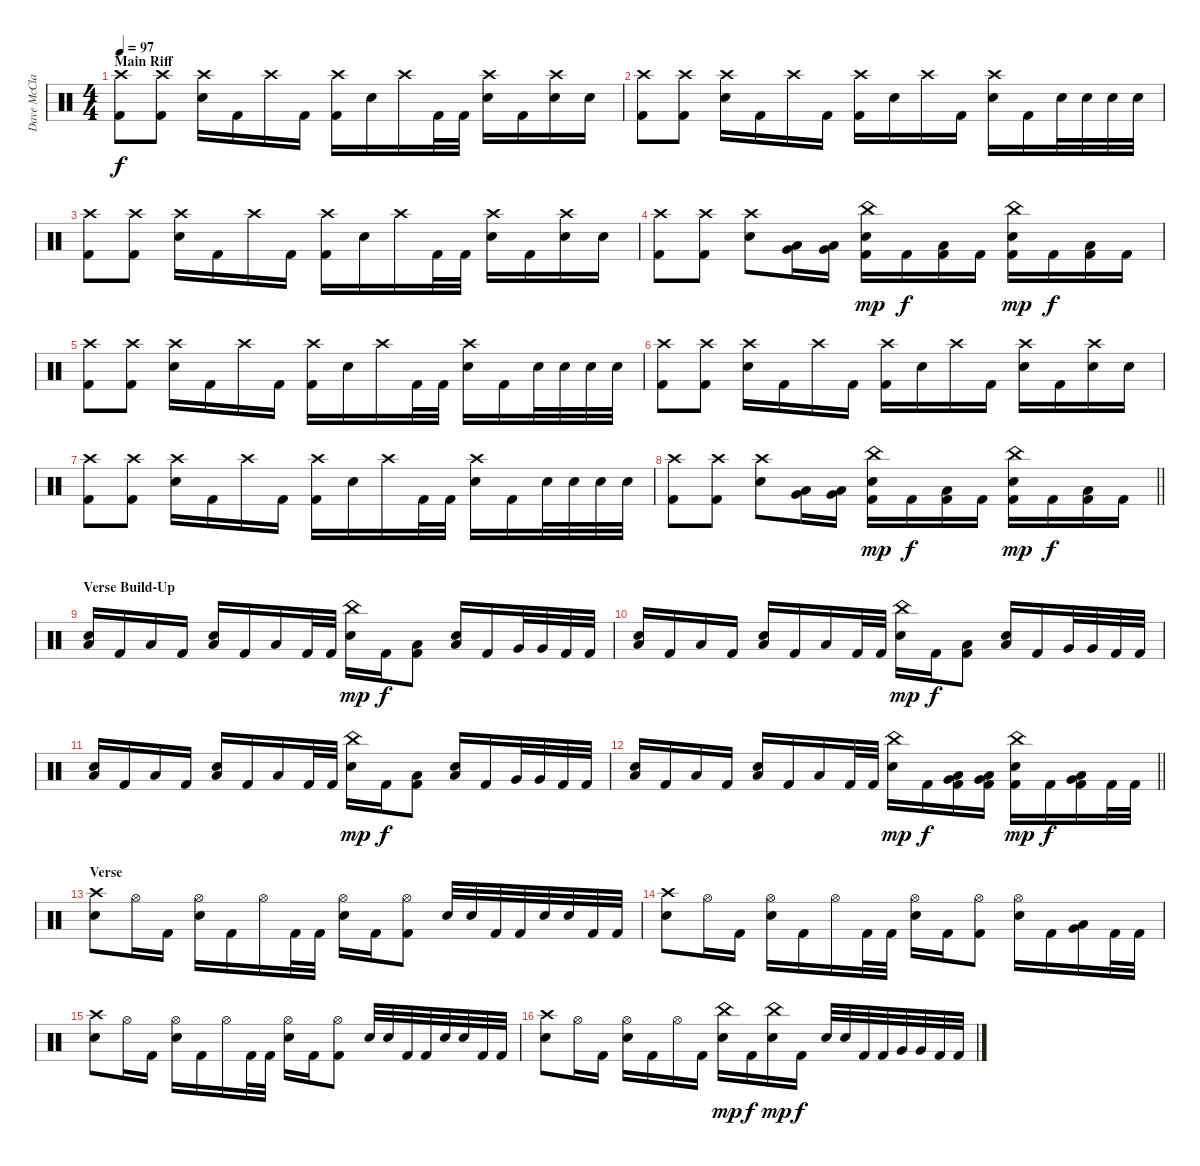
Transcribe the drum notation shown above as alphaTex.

\track ("Dave McClain" "Dave McCla") {instrument percussion}
\staff {score}
\articulation defaults
\ts (4 4)
\section ("" "Main Riff")
\tempo 97
\clef neutral
\ks c
("Crash high (hit)" "Kick (hit) 2").8{dy f} ("Crash high (hit)" "Kick (hit) 2").8 ("Crash high (hit)" "Snare (hit) 2").16 "Kick (hit) 2".16 "Crash high (hit)".16 "Kick (hit) 2".16 ("Crash high (hit)" "Kick (hit) 2").16 "Snare (hit) 2".16 "Crash high (hit)".16 "Kick (hit) 2".32 "Kick (hit) 2".32 ("Crash high (hit)" "Snare (hit) 2").16 "Kick (hit) 2".16 ("Crash high (hit)" "Snare (hit) 2").16 "Snare (hit) 2".16 |
("Crash high (hit)" "Kick (hit) 2").8 ("Crash high (hit)" "Kick (hit) 2").8 ("Crash high (hit)" "Snare (hit) 2").16 "Kick (hit) 2".16 "Crash high (hit)".16 "Kick (hit) 2".16 ("Crash high (hit)" "Kick (hit) 2").16 "Snare (hit) 2".16 "Crash high (hit)".16 "Kick (hit) 2".16 ("Crash high (hit)" "Snare (hit) 2").16 "Kick (hit) 2".16 "Snare (hit) 2".32 "Snare (hit) 2".32 "Snare (hit) 2".32 "Snare (hit) 2".32 |
("Crash high (hit)" "Kick (hit) 2").8 ("Crash high (hit)" "Kick (hit) 2").8 ("Crash high (hit)" "Snare (hit) 2").16 "Kick (hit) 2".16 "Crash high (hit)".16 "Kick (hit) 2".16 ("Crash high (hit)" "Kick (hit) 2").16 "Snare (hit) 2".16 "Crash high (hit)".16 "Kick (hit) 2".32 "Kick (hit) 2".32 ("Crash high (hit)" "Snare (hit) 2").16 "Kick (hit) 2".16 ("Crash high (hit)" "Snare (hit) 2").16 "Snare (hit) 2".16 |
("Crash high (hit)" "Kick (hit) 2").8 ("Crash high (hit)" "Kick (hit) 2").8 ("Crash high (hit)" "Snare (hit) 2").8 ("Very Low Tom (hit)" "Low Floor Tom (hit)").16 ("Very Low Tom (hit)" "Low Floor Tom (hit)").16 ("China (hit)" "Snare (hit) 2" "Kick (hit) 2").16{dy mp} "Kick (hit) 2".16{dy f} ("Low Floor Tom (hit)" "Kick (hit) 2").16 "Kick (hit) 2".16 ("China (hit)" "Snare (hit) 2" "Kick (hit) 2").16{dy mp} "Kick (hit) 2".16{dy f} ("Low Floor Tom (hit)" "Kick (hit) 2").16 "Kick (hit) 2".16 |
("Crash high (hit)" "Kick (hit) 2").8 ("Crash high (hit)" "Kick (hit) 2").8 ("Crash high (hit)" "Snare (hit) 2").16 "Kick (hit) 2".16 "Crash high (hit)".16 "Kick (hit) 2".16 ("Crash high (hit)" "Kick (hit) 2").16 "Snare (hit) 2".16 "Crash high (hit)".16 "Kick (hit) 2".32 "Kick (hit) 2".32 ("Crash high (hit)" "Snare (hit) 2").16 "Kick (hit) 2".16 "Snare (hit) 2".32 "Snare (hit) 2".32 "Snare (hit) 2".32 "Snare (hit) 2".32 |
("Crash high (hit)" "Kick (hit) 2").8 ("Crash high (hit)" "Kick (hit) 2").8 ("Crash high (hit)" "Snare (hit) 2").16 "Kick (hit) 2".16 "Crash high (hit)".16 "Kick (hit) 2".16 ("Crash high (hit)" "Kick (hit) 2").16 "Snare (hit) 2".16 "Crash high (hit)".16 "Kick (hit) 2".16 ("Crash high (hit)" "Snare (hit) 2").16 "Kick (hit) 2".16 ("Crash high (hit)" "Snare (hit) 2").16 "Snare (hit) 2".16 |
("Crash high (hit)" "Kick (hit) 2").8 ("Crash high (hit)" "Kick (hit) 2").8 ("Crash high (hit)" "Snare (hit) 2").16 "Kick (hit) 2".16 "Crash high (hit)".16 "Kick (hit) 2".16 ("Crash high (hit)" "Kick (hit) 2").16 "Snare (hit) 2".16 "Crash high (hit)".16 "Kick (hit) 2".32 "Kick (hit) 2".32 ("Crash high (hit)" "Snare (hit) 2").16 "Kick (hit) 2".16 "Snare (hit) 2".32 "Snare (hit) 2".32 "Snare (hit) 2".32 "Snare (hit) 2".32 |
\barLineRight lightlight
("Crash high (hit)" "Kick (hit) 2").8 ("Crash high (hit)" "Kick (hit) 2").8 ("Crash high (hit)" "Snare (hit) 2").8 ("Very Low Tom (hit)" "Low Floor Tom (hit)").16 ("Very Low Tom (hit)" "Low Floor Tom (hit)").16 ("China (hit)" "Snare (hit) 2" "Kick (hit) 2").16{dy mp} "Kick (hit) 2".16{dy f} ("Low Floor Tom (hit)" "Kick (hit) 2").16 "Kick (hit) 2".16 ("China (hit)" "Snare (hit) 2" "Kick (hit) 2").16{dy mp} "Kick (hit) 2".16{dy f} ("Low Floor Tom (hit)" "Kick (hit) 2").16 "Kick (hit) 2".16 |
\section ("" "Verse Build-Up")
("Snare (hit) 2" "Low Floor Tom (hit)").16 "Kick (hit) 2".16 "Low Floor Tom (hit)".16 "Kick (hit) 2".16 ("Snare (hit) 2" "Low Floor Tom (hit)").16 "Kick (hit) 2".16 "Low Floor Tom (hit)".16 "Kick (hit) 2".32 "Kick (hit) 2".32 ("China (hit)" "Snare (hit) 2").16{dy mp} "Kick (hit) 2".16{dy f} ("Low Floor Tom (hit)" "Kick (hit) 2").8 ("Snare (hit) 2" "Low Floor Tom (hit)").16 "Kick (hit) 2".16 "Very Low Tom (hit)".32 "Very Low Tom (hit)".32 "Kick (hit) 2".32 "Kick (hit) 2".32 |
("Snare (hit) 2" "Low Floor Tom (hit)").16 "Kick (hit) 2".16 "Low Floor Tom (hit)".16 "Kick (hit) 2".16 ("Snare (hit) 2" "Low Floor Tom (hit)").16 "Kick (hit) 2".16 "Low Floor Tom (hit)".16 "Kick (hit) 2".32 "Kick (hit) 2".32 ("China (hit)" "Snare (hit) 2").16{dy mp} "Kick (hit) 2".16{dy f} ("Low Floor Tom (hit)" "Kick (hit) 2").8 ("Snare (hit) 2" "Low Floor Tom (hit)").16 "Kick (hit) 2".16 "Very Low Tom (hit)".32 "Very Low Tom (hit)".32 "Kick (hit) 2".32 "Kick (hit) 2".32 |
("Snare (hit) 2" "Low Floor Tom (hit)").16 "Kick (hit) 2".16 "Low Floor Tom (hit)".16 "Kick (hit) 2".16 ("Snare (hit) 2" "Low Floor Tom (hit)").16 "Kick (hit) 2".16 "Low Floor Tom (hit)".16 "Kick (hit) 2".32 "Kick (hit) 2".32 ("China (hit)" "Snare (hit) 2").16{dy mp} "Kick (hit) 2".16{dy f} ("Low Floor Tom (hit)" "Kick (hit) 2").8 ("Snare (hit) 2" "Low Floor Tom (hit)").16 "Kick (hit) 2".16 "Very Low Tom (hit)".32 "Very Low Tom (hit)".32 "Kick (hit) 2".32 "Kick (hit) 2".32 |
\barLineRight lightlight
("Snare (hit) 2" "Low Floor Tom (hit)").16 "Kick (hit) 2".16 "Low Floor Tom (hit)".16 "Kick (hit) 2".16 ("Snare (hit) 2" "Low Floor Tom (hit)").16 "Kick (hit) 2".16 "Low Floor Tom (hit)".16 "Kick (hit) 2".32 "Kick (hit) 2".32 ("China (hit)" "Snare (hit) 2").16{dy mp} "Kick (hit) 2".16{dy f} ("Very Low Tom (hit)" "Low Floor Tom (hit)" "Kick (hit) 2").16 ("Very Low Tom (hit)" "Low Floor Tom (hit)" "Kick (hit) 2").16 ("China (hit)" "Snare (hit) 2" "Kick (hit) 2").16{dy mp} "Kick (hit) 2".16{dy f} ("Very Low Tom (hit)" "Low Floor Tom (hit)" "Kick (hit) 2").16 "Kick (hit) 2".32 "Kick (hit) 2".32 |
\section ("" "Verse")
("Crash high (hit)" "Snare (hit) 2").8 "Hi-Hat (open)".16 "Kick (hit) 2".16 ("Hi-Hat (open)" "Snare (hit) 2").16 "Kick (hit) 2".16 "Hi-Hat (open)".16 "Kick (hit) 2".32 "Kick (hit) 2".32 ("Hi-Hat (open)" "Snare (hit) 2").16 "Kick (hit) 2".16 ("Hi-Hat (open)" "Kick (hit) 2").8 "Snare (hit) 2".32 "Snare (hit) 2".32 "Kick (hit) 2".32 "Kick (hit) 2".32 "Snare (hit) 2".32 "Snare (hit) 2".32 "Kick (hit) 2".32 "Kick (hit) 2".32 |
("Crash high (hit)" "Snare (hit) 2").8 "Hi-Hat (open)".16 "Kick (hit) 2".16 ("Hi-Hat (open)" "Snare (hit) 2").16 "Kick (hit) 2".16 "Hi-Hat (open)".16 "Kick (hit) 2".32 "Kick (hit) 2".32 ("Hi-Hat (open)" "Snare (hit) 2").16 "Kick (hit) 2".16 ("Hi-Hat (open)" "Kick (hit) 2").8 ("Hi-Hat (open)" "Snare (hit) 2").16 "Kick (hit) 2".16 ("Very Low Tom (hit)" "Low Floor Tom (hit)").16 "Kick (hit) 2".32 "Kick (hit) 2".32 |
("Crash high (hit)" "Snare (hit) 2").8 "Hi-Hat (open)".16 "Kick (hit) 2".16 ("Hi-Hat (open)" "Snare (hit) 2").16 "Kick (hit) 2".16 "Hi-Hat (open)".16 "Kick (hit) 2".32 "Kick (hit) 2".32 ("Hi-Hat (open)" "Snare (hit) 2").16 "Kick (hit) 2".16 ("Hi-Hat (open)" "Kick (hit) 2").8 "Snare (hit) 2".32 "Snare (hit) 2".32 "Kick (hit) 2".32 "Kick (hit) 2".32 "Snare (hit) 2".32 "Snare (hit) 2".32 "Kick (hit) 2".32 "Kick (hit) 2".32 |
("Crash high (hit)" "Snare (hit) 2").8 "Hi-Hat (open)".16 "Kick (hit) 2".16 ("Hi-Hat (open)" "Snare (hit) 2").16 "Kick (hit) 2".16 "Hi-Hat (open)".16 "Kick (hit) 2".16 ("China (hit)" "Snare (hit) 2").16{dy mp} "Kick (hit) 2".16{dy f} ("China (hit)" "Snare (hit) 2").16{dy mp} "Kick (hit) 2".16{dy f} "Snare (hit) 2".32 "Snare (hit) 2".32 "Kick (hit) 2".32 "Kick (hit) 2".32 "Very Low Tom (hit)".32 "Very Low Tom (hit)".32 "Kick (hit) 2".32 "Kick (hit) 2".32
